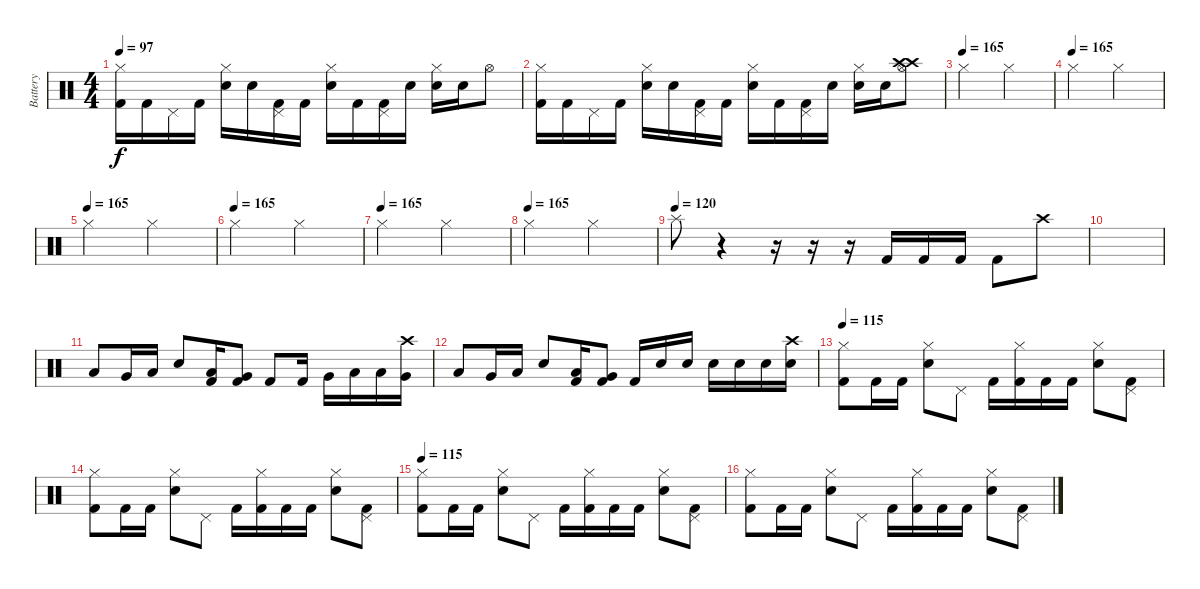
\track ("Battery" "Battery") {instrument percussion}
\staff {score}
\articulation defaults
\ts (4 4)
\tempo 97
\clef neutral
\ks c
("Kick (hit) 2" "Hi-Hat (closed)").16{dy f} "Kick (hit) 2".16 "Pedal Hi-Hat (hit)".16 "Kick (hit) 2".16 ("Snare (hit) 2" "Hi-Hat (closed)").16 "Snare (hit)".16 ("Kick (hit) 2" "Pedal Hi-Hat (hit)").16 "Kick (hit) 2".16 ("Snare (hit)" "Hi-Hat (closed)").16 "Kick (hit) 2".16 ("Kick (hit) 2" "Pedal Hi-Hat (hit)").16 "Snare (hit)".16 ("Snare (hit) 2" "Hi-Hat (closed)").16 "Snare (hit)".16 "Hi-Hat (open)".8 |
("Kick (hit) 2" "Hi-Hat (closed)").16 "Kick (hit) 2".16 "Pedal Hi-Hat (hit)".16 "Kick (hit) 2".16 ("Snare (hit) 2" "Hi-Hat (closed)").16 "Snare (hit)".16 ("Kick (hit) 2" "Pedal Hi-Hat (hit)").16 "Kick (hit) 2".16 ("Snare (hit)" "Hi-Hat (closed)").16 "Kick (hit) 2".16 ("Kick (hit) 2" "Pedal Hi-Hat (hit)").16 "Snare (hit)".16 ("Snare (hit) 2" "Hi-Hat (closed)").16 "Snare (hit)".16 ("Hi-Hat (open)" "Crash high (hit)" "Crash high (hit)").8 |
\tempo (165)
"Hi-Hat (closed)".2 "Hi-Hat (closed)".2 |
\tempo (165)
"Hi-Hat (closed)".2 "Hi-Hat (closed)".2 |
\tempo (165)
"Hi-Hat (closed)".2 "Hi-Hat (closed)".2 |
\tempo (165)
"Hi-Hat (closed)".2 "Hi-Hat (closed)".2 |
\tempo (165)
"Hi-Hat (closed)".2 "Hi-Hat (closed)".2 |
\tempo (165)
"Hi-Hat (closed)".2 "Hi-Hat (closed)".2 |
\tempo (120)
"Splash (hit)".8 r.4 r.16 r.16 r.16 "Kick (hit) 2".16 "Kick (hit) 2".16 "Kick (hit) 2".16 "Kick (hit) 2".8 "Crash high (hit)".8 |
|
"Low Floor Tom (hit)".8 "Very Low Tom (hit)".16 "Low Floor Tom (hit)".16 "Snare (hit) 2".8 ("Low Floor Tom (hit)" "Kick (hit) 2").16 ("Very Low Tom (hit)" "Kick (hit) 2").8 "Kick (hit) 2".8 "Kick (hit) 2".16 "Very Low Tom (hit)".16 "Low Floor Tom (hit)".16 "Low Floor Tom (hit)".16 ("Very Low Tom (hit)" "Crash high (hit)").16 |
"Low Floor Tom (hit)".8 "Very Low Tom (hit)".16 "Low Floor Tom (hit)".16 "Snare (hit) 2".8 ("Low Floor Tom (hit)" "Kick (hit) 2").16 ("Very Low Tom (hit)" "Kick (hit) 2").8 "Kick (hit) 2".16 "Snare (hit) 2".16 "Snare (hit) 2".16 "Snare (hit) 2".16 "Snare (hit) 2".16 "Snare (hit) 2".16 ("Snare (hit) 2" "Crash high (hit)").16 |
\tempo 115
("Hi-Hat (closed)" "Kick (hit) 2").8 "Kick (hit) 2".16 "Kick (hit) 2".16 ("Hi-Hat (closed)" "Snare (hit) 2").8 "Pedal Hi-Hat (hit)".8 "Kick (hit) 2".16 ("Hi-Hat (closed)" "Kick (hit) 2").16 "Kick (hit) 2".16 "Kick (hit) 2".16 ("Hi-Hat (closed)" "Snare (hit) 2").8 ("Pedal Hi-Hat (hit)" "Kick (hit) 2").8 |
("Hi-Hat (closed)" "Kick (hit) 2").8 "Kick (hit) 2".16 "Kick (hit) 2".16 ("Hi-Hat (closed)" "Snare (hit) 2").8 "Pedal Hi-Hat (hit)".8 "Kick (hit) 2".16 ("Hi-Hat (closed)" "Kick (hit) 2").16 "Kick (hit) 2".16 "Kick (hit) 2".16 ("Hi-Hat (closed)" "Snare (hit) 2").8 ("Pedal Hi-Hat (hit)" "Kick (hit) 2").8 |
\tempo 115
("Hi-Hat (closed)" "Kick (hit) 2").8 "Kick (hit) 2".16 "Kick (hit) 2".16 ("Hi-Hat (closed)" "Snare (hit) 2").8 "Pedal Hi-Hat (hit)".8 "Kick (hit) 2".16 ("Hi-Hat (closed)" "Kick (hit) 2").16 "Kick (hit) 2".16 "Kick (hit) 2".16 ("Hi-Hat (closed)" "Snare (hit) 2").8 ("Pedal Hi-Hat (hit)" "Kick (hit) 2").8 |
("Hi-Hat (closed)" "Kick (hit) 2").8 "Kick (hit) 2".16 "Kick (hit) 2".16 ("Hi-Hat (closed)" "Snare (hit) 2").8 "Pedal Hi-Hat (hit)".8 "Kick (hit) 2".16 ("Hi-Hat (closed)" "Kick (hit) 2").16 "Kick (hit) 2".16 "Kick (hit) 2".16 ("Hi-Hat (closed)" "Snare (hit) 2").8 ("Pedal Hi-Hat (hit)" "Kick (hit) 2").8
